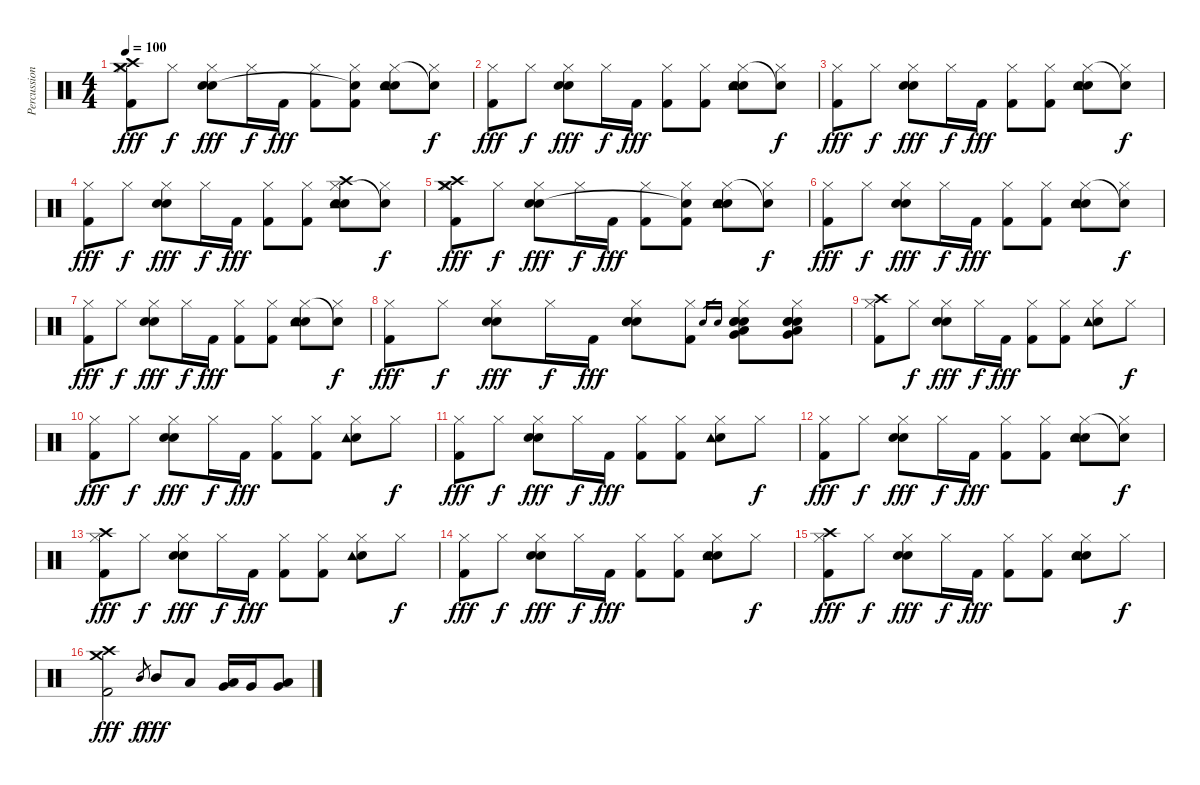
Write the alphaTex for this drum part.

\track ("Percussion" "Percussion") {instrument percussion}
\staff {score}
\articulation defaults
\ts (4 4)
\tempo 100
\clef neutral
\ks c
("Kick (hit) 2" "Hi-Hat (closed)" "Crash high (hit)" "Crash medium (hit)").8{dy fff} "Hi-Hat (closed)".8{dy f} ("Electric Snare (hit)" "Hi-Hat (closed)" "Hand Clap (hit)").8{dy fff} "Hi-Hat (closed)".16{dy f} "Kick (hit) 2".16{dy fff} ("Kick (hit) 2" "Hi-Hat (closed)").8 ("Kick (hit) 2" "Hi-Hat (closed)" "Snare (hit)"{t}).8 ("Electric Snare (hit)" "Hi-Hat (closed)" "Hand Clap (hit)" "Tambourine (hit)").8 ("Hi-Hat (closed)" "Snare (hit)"{t}).8{dy f} |
("Kick (hit) 2" "Hi-Hat (closed)").8{dy fff} "Hi-Hat (closed)".8{dy f} ("Electric Snare (hit)" "Hi-Hat (closed)" "Hand Clap (hit)").8{dy fff} "Hi-Hat (closed)".16{dy f} "Kick (hit) 2".16{dy fff} ("Kick (hit) 2" "Hi-Hat (closed)").8 ("Kick (hit) 2" "Hi-Hat (closed)").8 ("Electric Snare (hit)" "Hi-Hat (closed)" "Hand Clap (hit)" "Tambourine (hit)").8 ("Hi-Hat (closed)" "Snare (hit)"{t}).8{dy f} |
("Kick (hit) 2" "Hi-Hat (closed)").8{dy fff} "Hi-Hat (closed)".8{dy f} ("Electric Snare (hit)" "Hi-Hat (closed)" "Hand Clap (hit)").8{dy fff} "Hi-Hat (closed)".16{dy f} "Kick (hit) 2".16{dy fff} ("Kick (hit) 2" "Hi-Hat (closed)").8 ("Kick (hit) 2" "Hi-Hat (closed)").8 ("Electric Snare (hit)" "Hi-Hat (closed)" "Hand Clap (hit)" "Tambourine (hit)").8 ("Hi-Hat (closed)" "Snare (hit)"{t}).8{dy f} |
("Kick (hit) 2" "Hi-Hat (closed)").8{dy fff} "Hi-Hat (closed)".8{dy f} ("Electric Snare (hit)" "Hi-Hat (closed)" "Hand Clap (hit)").8{dy fff} "Hi-Hat (closed)".16{dy f} "Kick (hit) 2".16{dy fff} ("Kick (hit) 2" "Hi-Hat (closed)").8 ("Kick (hit) 2" "Hi-Hat (closed)").8 ("Electric Snare (hit)" "Hi-Hat (closed)" "Hand Clap (hit)" "Tambourine (hit)" "Crash high (hit)").8 ("Hi-Hat (closed)" "Snare (hit)"{t}).8{dy f} |
("Kick (hit) 2" "Hi-Hat (closed)" "Crash high (hit)" "Crash medium (hit)").8{dy fff} "Hi-Hat (closed)".8{dy f} ("Electric Snare (hit)" "Hi-Hat (closed)" "Hand Clap (hit)").8{dy fff} "Hi-Hat (closed)".16{dy f} "Kick (hit) 2".16{dy fff} ("Kick (hit) 2" "Hi-Hat (closed)").8 ("Kick (hit) 2" "Hi-Hat (closed)" "Snare (hit)"{t}).8 ("Electric Snare (hit)" "Hi-Hat (closed)" "Hand Clap (hit)" "Tambourine (hit)").8 ("Hi-Hat (closed)" "Snare (hit)"{t}).8{dy f} |
("Kick (hit) 2" "Hi-Hat (closed)").8{dy fff} "Hi-Hat (closed)".8{dy f} ("Electric Snare (hit)" "Hi-Hat (closed)" "Hand Clap (hit)").8{dy fff} "Hi-Hat (closed)".16{dy f} "Kick (hit) 2".16{dy fff} ("Kick (hit) 2" "Hi-Hat (closed)").8 ("Kick (hit) 2" "Hi-Hat (closed)").8 ("Electric Snare (hit)" "Hi-Hat (closed)" "Hand Clap (hit)" "Tambourine (hit)").8 ("Hi-Hat (closed)" "Snare (hit)"{t}).8{dy f} |
("Kick (hit) 2" "Hi-Hat (closed)").8{dy fff} "Hi-Hat (closed)".8{dy f} ("Electric Snare (hit)" "Hi-Hat (closed)" "Hand Clap (hit)").8{dy fff} "Hi-Hat (closed)".16{dy f} "Kick (hit) 2".16{dy fff} ("Kick (hit) 2" "Hi-Hat (closed)").8 ("Kick (hit) 2" "Hi-Hat (closed)").8 ("Electric Snare (hit)" "Hi-Hat (closed)" "Hand Clap (hit)" "Tambourine (hit)").8 ("Hi-Hat (closed)" "Snare (hit)"{t}).8{dy f} |
("Kick (hit) 2" "Hi-Hat (closed)").8{dy fff} "Hi-Hat (closed)".8{dy f} ("Electric Snare (hit)" "Hi-Hat (closed)" "Hand Clap (hit)").8{dy fff} "Hi-Hat (closed)".16{dy f} "Kick (hit) 2".16{dy fff} ("Electric Snare (hit)" "Hi-Hat (closed)" "Electric Snare (hit)" "Electric Snare (hit)").8 ("Kick (hit) 2" "Hi-Hat (closed)").8 "Electric Snare (hit)".16{gr} "Electric Snare (hit)".16{gr} ("Electric Snare (hit)" "Hi-Hat (closed)" "Electric Snare (hit)" "Electric Snare (hit)" "Low Tom (hit)" "Very Low Tom (hit)").8 ("Electric Snare (hit)" "Hi-Hat (closed)" "Electric Snare (hit)" "Electric Snare (hit)" "Very Low Tom (hit)" "Low Floor Tom (hit)").8 |
("Kick (hit) 2" "Hi-Hat (closed)" "Crash high (hit)").8 "Hi-Hat (closed)".8{dy f} ("Electric Snare (hit)" "Hi-Hat (closed)" "Hand Clap (hit)").8{dy fff} "Hi-Hat (closed)".16{dy f} "Kick (hit) 2".16{dy fff} ("Kick (hit) 2" "Hi-Hat (closed)").8 ("Kick (hit) 2" "Hi-Hat (closed)").8 ("Electric Snare (hit)" "Hi-Hat (closed)" "Tambourine (hit)").8 "Hi-Hat (closed)".8{dy f} |
("Kick (hit) 2" "Hi-Hat (closed)").8{dy fff} "Hi-Hat (closed)".8{dy f} ("Electric Snare (hit)" "Hi-Hat (closed)" "Hand Clap (hit)").8{dy fff} "Hi-Hat (closed)".16{dy f} "Kick (hit) 2".16{dy fff} ("Kick (hit) 2" "Hi-Hat (closed)").8 ("Kick (hit) 2" "Hi-Hat (closed)").8 ("Electric Snare (hit)" "Hi-Hat (closed)" "Tambourine (hit)").8 "Hi-Hat (closed)".8{dy f} |
("Kick (hit) 2" "Hi-Hat (closed)").8{dy fff} "Hi-Hat (closed)".8{dy f} ("Electric Snare (hit)" "Hi-Hat (closed)" "Hand Clap (hit)").8{dy fff} "Hi-Hat (closed)".16{dy f} "Kick (hit) 2".16{dy fff} ("Kick (hit) 2" "Hi-Hat (closed)").8 ("Kick (hit) 2" "Hi-Hat (closed)").8 ("Electric Snare (hit)" "Hi-Hat (closed)" "Tambourine (hit)").8 "Hi-Hat (closed)".8{dy f} |
("Kick (hit) 2" "Hi-Hat (closed)").8{dy fff} "Hi-Hat (closed)".8{dy f} ("Electric Snare (hit)" "Hi-Hat (closed)" "Hand Clap (hit)").8{dy fff} "Hi-Hat (closed)".16{dy f} "Kick (hit) 2".16{dy fff} ("Kick (hit) 2" "Hi-Hat (closed)").8 ("Kick (hit) 2" "Hi-Hat (closed)").8 ("Electric Snare (hit)" "Hi-Hat (closed)" "Hand Clap (hit)" "Tambourine (hit)").8 ("Hi-Hat (closed)" "Snare (hit)"{t}).8{dy f} |
("Kick (hit) 2" "Hi-Hat (closed)" "Crash high (hit)").8{dy fff} "Hi-Hat (closed)".8{dy f} ("Electric Snare (hit)" "Hi-Hat (closed)" "Hand Clap (hit)").8{dy fff} "Hi-Hat (closed)".16{dy f} "Kick (hit) 2".16{dy fff} ("Kick (hit) 2" "Hi-Hat (closed)").8 ("Kick (hit) 2" "Hi-Hat (closed)").8 ("Electric Snare (hit)" "Hi-Hat (closed)" "Tambourine (hit)").8 "Hi-Hat (closed)".8{dy f} |
("Kick (hit) 2" "Hi-Hat (closed)").8{dy fff} "Hi-Hat (closed)".8{dy f} ("Electric Snare (hit)" "Hi-Hat (closed)" "Hand Clap (hit)").8{dy fff} "Hi-Hat (closed)".16{dy f} "Kick (hit) 2".16{dy fff} ("Kick (hit) 2" "Hi-Hat (closed)").8 ("Kick (hit) 2" "Hi-Hat (closed)").8 ("Electric Snare (hit)" "Hi-Hat (closed)" "Hand Clap (hit)" "Tambourine (hit)").8 "Hi-Hat (closed)".8{dy f} |
("Kick (hit) 2" "Hi-Hat (closed)" "Crash high (hit)").8{dy fff} "Hi-Hat (closed)".8{dy f} ("Electric Snare (hit)" "Hi-Hat (closed)" "Hand Clap (hit)").8{dy fff} "Hi-Hat (closed)".16{dy f} "Kick (hit) 2".16{dy fff} ("Kick (hit) 2" "Hi-Hat (closed)").8 ("Kick (hit) 2" "Hi-Hat (closed)").8 ("Electric Snare (hit)" "Hi-Hat (closed)" "Hand Clap (hit)" "Tambourine (hit)").8 "Hi-Hat (closed)".8{dy f} |
("Kick (hit) 2" "Crash high (hit)" "Crash medium (hit)").2{dy fff} "Mid Tom (hit)".8{gr dy f} "Mid Tom (hit)".8{dy fff} "Low Tom (hit)".8 ("Very Low Tom (hit)" "Low Tom (hit)").16 "Very Low Tom (hit)".16 ("Low Floor Tom (hit)" "Very Low Tom (hit)").8
